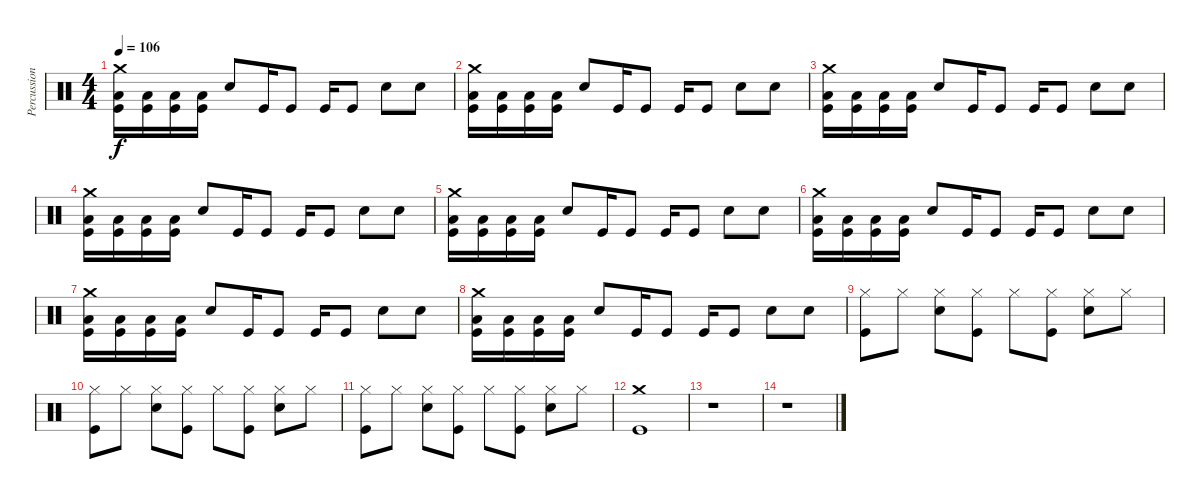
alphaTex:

\track ("Percussions" "Percussion") {instrument percussion}
\staff {score}
\articulation defaults
\ts (4 4)
\tempo 106
\clef neutral
\ks c
("Crash medium (hit)" "Low Floor Tom (hit)" "Kick (hit)").16{dy f} ("Low Floor Tom (hit)" "Kick (hit)").16 ("Low Floor Tom (hit)" "Kick (hit)").16 ("Low Floor Tom (hit)" "Kick (hit)").16 "Electric Snare (hit)".8 "Kick (hit)".16 "Kick (hit)".8 "Kick (hit)".16 "Kick (hit)".8 "Electric Snare (hit)".8 "Electric Snare (hit)".8 |
("Crash medium (hit)" "Low Floor Tom (hit)" "Kick (hit)").16 ("Low Floor Tom (hit)" "Kick (hit)").16 ("Low Floor Tom (hit)" "Kick (hit)").16 ("Low Floor Tom (hit)" "Kick (hit)").16 "Electric Snare (hit)".8 "Kick (hit)".16 "Kick (hit)".8 "Kick (hit)".16 "Kick (hit)".8 "Electric Snare (hit)".8 "Electric Snare (hit)".8 |
("Crash medium (hit)" "Low Floor Tom (hit)" "Kick (hit)").16 ("Low Floor Tom (hit)" "Kick (hit)").16 ("Low Floor Tom (hit)" "Kick (hit)").16 ("Low Floor Tom (hit)" "Kick (hit)").16 "Electric Snare (hit)".8 "Kick (hit)".16 "Kick (hit)".8 "Kick (hit)".16 "Kick (hit)".8 "Electric Snare (hit)".8 "Electric Snare (hit)".8 |
("Crash medium (hit)" "Low Floor Tom (hit)" "Kick (hit)").16 ("Low Floor Tom (hit)" "Kick (hit)").16 ("Low Floor Tom (hit)" "Kick (hit)").16 ("Low Floor Tom (hit)" "Kick (hit)").16 "Electric Snare (hit)".8 "Kick (hit)".16 "Kick (hit)".8 "Kick (hit)".16 "Kick (hit)".8 "Electric Snare (hit)".8 "Electric Snare (hit)".8 |
("Crash medium (hit)" "Low Floor Tom (hit)" "Kick (hit)").16 ("Low Floor Tom (hit)" "Kick (hit)").16 ("Low Floor Tom (hit)" "Kick (hit)").16 ("Low Floor Tom (hit)" "Kick (hit)").16 "Electric Snare (hit)".8 "Kick (hit)".16 "Kick (hit)".8 "Kick (hit)".16 "Kick (hit)".8 "Electric Snare (hit)".8 "Electric Snare (hit)".8 |
("Crash medium (hit)" "Low Floor Tom (hit)" "Kick (hit)").16 ("Low Floor Tom (hit)" "Kick (hit)").16 ("Low Floor Tom (hit)" "Kick (hit)").16 ("Low Floor Tom (hit)" "Kick (hit)").16 "Electric Snare (hit)".8 "Kick (hit)".16 "Kick (hit)".8 "Kick (hit)".16 "Kick (hit)".8 "Electric Snare (hit)".8 "Electric Snare (hit)".8 |
("Crash medium (hit)" "Low Floor Tom (hit)" "Kick (hit)").16 ("Low Floor Tom (hit)" "Kick (hit)").16 ("Low Floor Tom (hit)" "Kick (hit)").16 ("Low Floor Tom (hit)" "Kick (hit)").16 "Electric Snare (hit)".8 "Kick (hit)".16 "Kick (hit)".8 "Kick (hit)".16 "Kick (hit)".8 "Electric Snare (hit)".8 "Electric Snare (hit)".8 |
("Crash medium (hit)" "Low Floor Tom (hit)" "Kick (hit)").16 ("Low Floor Tom (hit)" "Kick (hit)").16 ("Low Floor Tom (hit)" "Kick (hit)").16 ("Low Floor Tom (hit)" "Kick (hit)").16 "Electric Snare (hit)".8 "Kick (hit)".16 "Kick (hit)".8 "Kick (hit)".16 "Kick (hit)".8 "Electric Snare (hit)".8 "Electric Snare (hit)".8 |
("Hi-Hat (closed)" "Kick (hit)").8 "Hi-Hat (closed)".8 ("Hi-Hat (closed)" "Electric Snare (hit)").8 ("Hi-Hat (closed)" "Kick (hit)").8 "Hi-Hat (closed)".8 ("Hi-Hat (closed)" "Kick (hit)").8 ("Hi-Hat (closed)" "Electric Snare (hit)").8 "Hi-Hat (closed)".8 |
("Hi-Hat (closed)" "Kick (hit)").8 "Hi-Hat (closed)".8 ("Hi-Hat (closed)" "Electric Snare (hit)").8 ("Hi-Hat (closed)" "Kick (hit)").8 "Hi-Hat (closed)".8 ("Hi-Hat (closed)" "Kick (hit)").8 ("Hi-Hat (closed)" "Electric Snare (hit)").8 "Hi-Hat (closed)".8 |
("Hi-Hat (closed)" "Kick (hit)").8 "Hi-Hat (closed)".8 ("Hi-Hat (closed)" "Electric Snare (hit)").8 ("Hi-Hat (closed)" "Kick (hit)").8 "Hi-Hat (closed)".8 ("Hi-Hat (closed)" "Kick (hit)").8 ("Hi-Hat (closed)" "Electric Snare (hit)").8 "Hi-Hat (closed)".8 |
("Crash medium (hit)" "Kick (hit)").1 |
r.1 |
r.1
